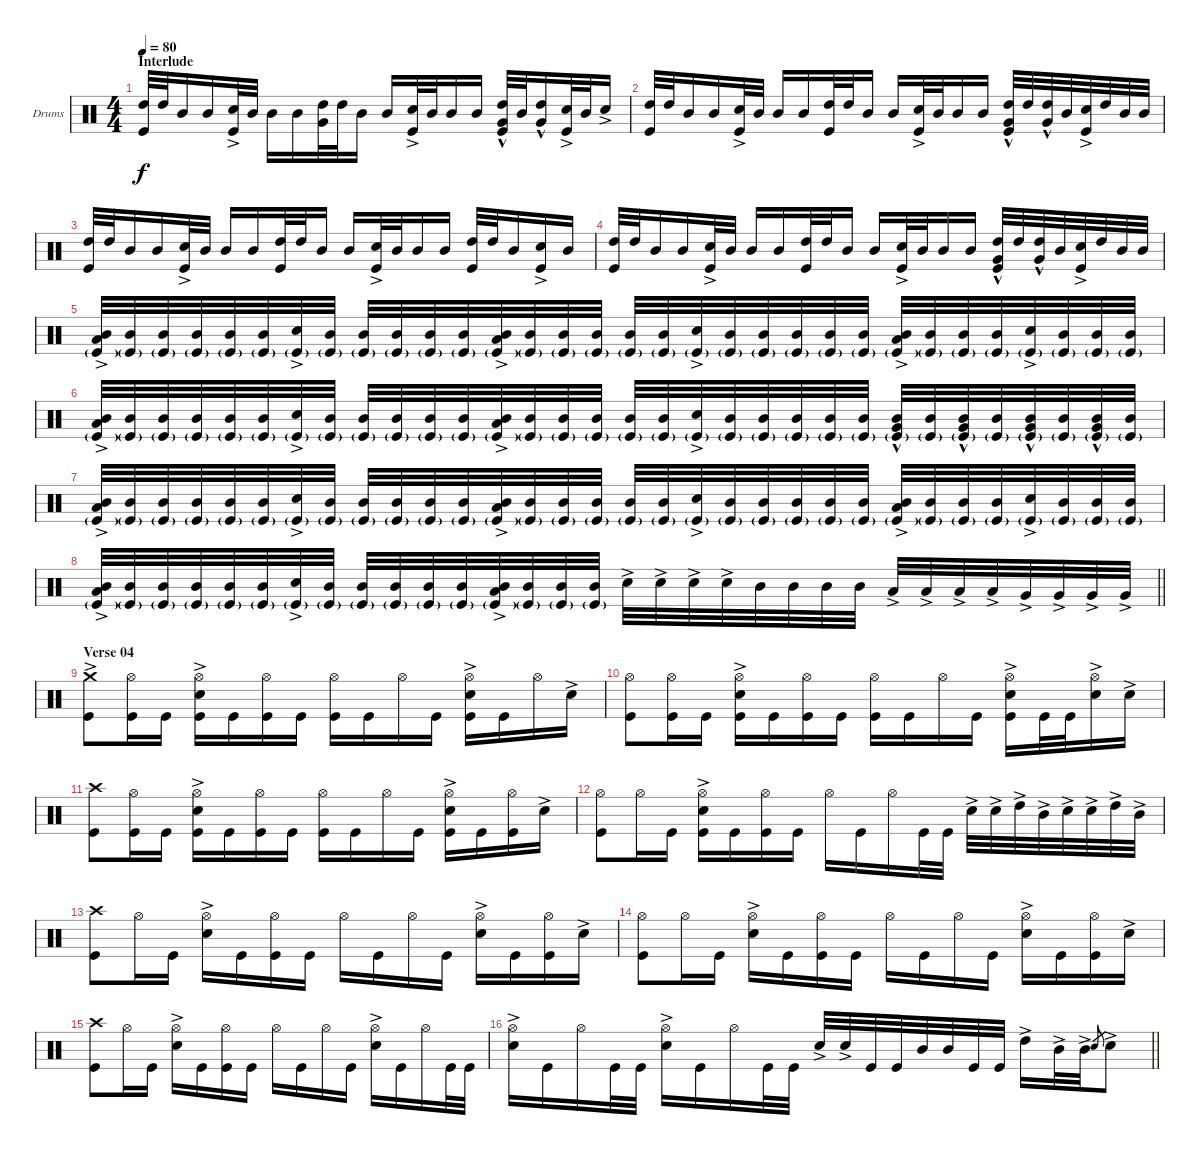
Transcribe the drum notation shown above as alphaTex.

\bracketExtendMode groupsimilarinstruments
\firstSystemTrackNameOrientation horizontal
\otherSystemsTrackNameOrientation horizontal
\track ("Drumkit" "Drums") {instrument percussion}
\staff {score}
\articulation defaults
\ts (4 4)
\section ("" "Interlude")
\tempo 80
\clef neutral
\ks c
("High Tom (hit)" "Kick (hit)").32{dy f} "High Tom (hit)".32 "Mid Tom (hit)".16 "Mid Tom (hit)".16 ("Snare (hit) 2"{ac} "Kick (hit)").32 "Mid Tom (hit)".32 "Mid Tom (hit)".16 "Mid Tom (hit)".16 ("High Tom (hit)" "Very Low Tom (hit)").32 "High Tom (hit)".32 "Mid Tom (hit)".16 "Mid Tom (hit)".16 ("Snare (hit) 2"{ac} "Kick (hit)").32 "Mid Tom (hit)".32 "Mid Tom (hit)".16 "Mid Tom (hit)".16 ("High Tom (hit)" "Very Low Tom (hit)"{hac} "Kick (hit)").32 "Mid Tom (hit)".32 ("High Tom (hit)" "Very Low Tom (hit)"{hac}).16 ("Snare (hit) 2"{ac} "Kick (hit)").32 "Mid Tom (hit)".32 "Snare (hit) 2"{ac}.16 |
("High Tom (hit)" "Kick (hit)").32 "High Tom (hit)".32 "Mid Tom (hit)".16 "Mid Tom (hit)".16 ("Snare (hit) 2"{ac} "Kick (hit)").32 "Mid Tom (hit)".32 "Mid Tom (hit)".16 "Mid Tom (hit)".16 ("High Tom (hit)" "Kick (hit)").32 "High Tom (hit)".32 "Mid Tom (hit)".16 "Mid Tom (hit)".16 ("Snare (hit) 2"{ac} "Kick (hit)").32 "Mid Tom (hit)".32 "Mid Tom (hit)".16 "Mid Tom (hit)".16 ("High Tom (hit)" "Very Low Tom (hit)"{hac} "Kick (hit)").32 "High Tom (hit)".32 ("High Tom (hit)" "Very Low Tom (hit)"{hac}).32 "Mid Tom (hit)".32 ("Snare (hit) 2"{ac} "Kick (hit)").32 "High Tom (hit)".32 "Mid Tom (hit)".32 "Mid Tom (hit)".32 |
("High Tom (hit)" "Kick (hit)").32 "High Tom (hit)".32 "Mid Tom (hit)".16 "Mid Tom (hit)".16 ("Snare (hit) 2"{ac} "Kick (hit)").32 "Mid Tom (hit)".32 "Mid Tom (hit)".16 "Mid Tom (hit)".16 ("High Tom (hit)" "Kick (hit)").32 "High Tom (hit)".32 "Mid Tom (hit)".16 "Mid Tom (hit)".16 ("Snare (hit) 2"{ac} "Kick (hit)").32 "Mid Tom (hit)".32 "Mid Tom (hit)".16 "Mid Tom (hit)".16 ("High Tom (hit)" "Kick (hit)").32 "High Tom (hit)".32 "Mid Tom (hit)".16 ("Snare (hit) 2"{ac} "Kick (hit)").16 "Mid Tom (hit)".16 |
("High Tom (hit)" "Kick (hit)").32 "High Tom (hit)".32 "Mid Tom (hit)".16 "Mid Tom (hit)".16 ("Snare (hit) 2"{ac} "Kick (hit)").32 "Mid Tom (hit)".32 "Mid Tom (hit)".16 "Mid Tom (hit)".16 ("High Tom (hit)" "Kick (hit)").32 "High Tom (hit)".32 "Mid Tom (hit)".16 "Mid Tom (hit)".16 ("Snare (hit) 2"{ac} "Kick (hit)").32 "Mid Tom (hit)".32 "Mid Tom (hit)".16 "Mid Tom (hit)".16 ("High Tom (hit)" "Very Low Tom (hit)"{hac} "Kick (hit)").32 "High Tom (hit)".32 ("High Tom (hit)" "Very Low Tom (hit)"{hac}).32 "Mid Tom (hit)".32 ("Snare (hit) 2"{ac} "Kick (hit)").32 "High Tom (hit)".32 "Mid Tom (hit)".32 "Mid Tom (hit)".32 |
("Kick (hit)"{g} "Mid Tom (hit)" "Low Tom (hit)"{ac}).32 ("Kick (hit)"{g} "Mid Tom (hit)").32 ("Kick (hit)"{g} "Mid Tom (hit)").32 ("Kick (hit)"{g} "Mid Tom (hit)").32 ("Kick (hit)"{g} "Mid Tom (hit)").32 ("Kick (hit)"{g} "Mid Tom (hit)").32 ("Snare (hit) 2"{ac} "Kick (hit)"{g}).32 ("Kick (hit)"{g} "Mid Tom (hit)").32 ("Kick (hit)"{g} "Mid Tom (hit)").32 ("Kick (hit)"{g} "Mid Tom (hit)").32 ("Kick (hit)"{g} "Mid Tom (hit)").32 ("Kick (hit)"{g} "Mid Tom (hit)").32 ("Kick (hit)"{g} "Low Tom (hit)"{ac} "Mid Tom (hit)").32 ("Kick (hit)"{g} "Mid Tom (hit)").32 ("Kick (hit)"{g} "Mid Tom (hit)").32 ("Kick (hit)"{g} "Mid Tom (hit)").32 ("Kick (hit)"{g} "Mid Tom (hit)").32 ("Kick (hit)"{g} "Mid Tom (hit)").32 ("Snare (hit) 2"{ac} "Kick (hit)"{g}).32 ("Kick (hit)"{g} "Mid Tom (hit)").32 ("Kick (hit)"{g} "Mid Tom (hit)").32 ("Kick (hit)"{g} "Mid Tom (hit)").32 ("Kick (hit)"{g} "Mid Tom (hit)").32 ("Kick (hit)"{g} "Mid Tom (hit)").32 ("Kick (hit)"{g} "Low Tom (hit)"{ac} "Mid Tom (hit)").32 ("Kick (hit)"{g} "Mid Tom (hit)").32 ("Kick (hit)"{g} "Mid Tom (hit)").32 ("Kick (hit)"{g} "Mid Tom (hit)").32 ("Snare (hit) 2"{ac} "Kick (hit)"{g}).32 ("Kick (hit)"{g} "Mid Tom (hit)").32 ("Kick (hit)"{g} "Mid Tom (hit)").32 ("Kick (hit)"{g} "Mid Tom (hit)").32 |
("Kick (hit)"{g} "Mid Tom (hit)" "Low Tom (hit)"{ac}).32 ("Kick (hit)"{g} "Mid Tom (hit)").32 ("Kick (hit)"{g} "Mid Tom (hit)").32 ("Kick (hit)"{g} "Mid Tom (hit)").32 ("Kick (hit)"{g} "Mid Tom (hit)").32 ("Kick (hit)"{g} "Mid Tom (hit)").32 ("Snare (hit) 2"{ac} "Kick (hit)"{g}).32 ("Kick (hit)"{g} "Mid Tom (hit)").32 ("Kick (hit)"{g} "Mid Tom (hit)").32 ("Kick (hit)"{g} "Mid Tom (hit)").32 ("Kick (hit)"{g} "Mid Tom (hit)").32 ("Kick (hit)"{g} "Mid Tom (hit)").32 ("Kick (hit)"{g} "Mid Tom (hit)" "Low Tom (hit)"{ac}).32 ("Kick (hit)"{g} "Mid Tom (hit)").32 ("Kick (hit)"{g} "Mid Tom (hit)").32 ("Kick (hit)"{g} "Mid Tom (hit)").32 ("Kick (hit)"{g} "Mid Tom (hit)").32 ("Kick (hit)"{g} "Mid Tom (hit)").32 ("Snare (hit) 2"{ac} "Kick (hit)"{g}).32 ("Kick (hit)"{g} "Mid Tom (hit)").32 ("Kick (hit)"{g} "Mid Tom (hit)").32 ("Kick (hit)"{g} "Mid Tom (hit)").32 ("Kick (hit)"{g} "Mid Tom (hit)").32 ("Kick (hit)"{g} "Mid Tom (hit)").32 ("Kick (hit)"{g} "Mid Tom (hit)" "Very Low Tom (hit)"{hac}).32 ("Kick (hit)"{g} "Mid Tom (hit)").32 ("Kick (hit)"{g} "Mid Tom (hit)" "Very Low Tom (hit)"{hac}).32 ("Kick (hit)"{g} "Mid Tom (hit)").32 ("Kick (hit)"{g} "Mid Tom (hit)" "Very Low Tom (hit)"{hac}).32 ("Kick (hit)"{g} "Mid Tom (hit)").32 ("Kick (hit)"{g} "Mid Tom (hit)" "Very Low Tom (hit)"{hac}).32 ("Kick (hit)"{g} "Mid Tom (hit)").32 |
("Kick (hit)"{g} "Mid Tom (hit)" "Low Tom (hit)"{ac}).32 ("Kick (hit)"{g} "Mid Tom (hit)").32 ("Kick (hit)"{g} "Mid Tom (hit)").32 ("Kick (hit)"{g} "Mid Tom (hit)").32 ("Kick (hit)"{g} "Mid Tom (hit)").32 ("Kick (hit)"{g} "Mid Tom (hit)").32 ("Snare (hit) 2"{ac} "Kick (hit)"{g}).32 ("Kick (hit)"{g} "Mid Tom (hit)").32 ("Kick (hit)"{g} "Mid Tom (hit)").32 ("Kick (hit)"{g} "Mid Tom (hit)").32 ("Kick (hit)"{g} "Mid Tom (hit)").32 ("Kick (hit)"{g} "Mid Tom (hit)").32 ("Kick (hit)"{g} "Low Tom (hit)"{ac} "Mid Tom (hit)").32 ("Kick (hit)"{g} "Mid Tom (hit)").32 ("Kick (hit)"{g} "Mid Tom (hit)").32 ("Kick (hit)"{g} "Mid Tom (hit)").32 ("Kick (hit)"{g} "Mid Tom (hit)").32 ("Kick (hit)"{g} "Mid Tom (hit)").32 ("Snare (hit) 2"{ac} "Kick (hit)"{g}).32 ("Kick (hit)"{g} "Mid Tom (hit)").32 ("Kick (hit)"{g} "Mid Tom (hit)").32 ("Kick (hit)"{g} "Mid Tom (hit)").32 ("Kick (hit)"{g} "Mid Tom (hit)").32 ("Kick (hit)"{g} "Mid Tom (hit)").32 ("Kick (hit)"{g} "Low Tom (hit)"{ac} "Mid Tom (hit)").32 ("Kick (hit)"{g} "Mid Tom (hit)").32 ("Kick (hit)"{g} "Mid Tom (hit)").32 ("Kick (hit)"{g} "Mid Tom (hit)").32 ("Snare (hit) 2"{ac} "Kick (hit)"{g}).32 ("Kick (hit)"{g} "Mid Tom (hit)").32 ("Kick (hit)"{g} "Mid Tom (hit)").32 ("Kick (hit)"{g} "Mid Tom (hit)").32 |
\barLineRight lightlight
("Kick (hit)"{g} "Mid Tom (hit)" "Low Tom (hit)"{ac}).32 ("Kick (hit)"{g} "Mid Tom (hit)").32 ("Kick (hit)"{g} "Mid Tom (hit)").32 ("Kick (hit)"{g} "Mid Tom (hit)").32 ("Kick (hit)"{g} "Mid Tom (hit)").32 ("Kick (hit)"{g} "Mid Tom (hit)").32 ("Snare (hit) 2"{ac} "Kick (hit)"{g}).32 ("Kick (hit)"{g} "Mid Tom (hit)").32 ("Kick (hit)"{g} "Mid Tom (hit)").32 ("Kick (hit)"{g} "Mid Tom (hit)").32 ("Kick (hit)"{g} "Mid Tom (hit)").32 ("Kick (hit)"{g} "Mid Tom (hit)").32 ("Kick (hit)"{g} "Low Tom (hit)"{ac} "Mid Tom (hit)").32 ("Kick (hit)"{g} "Mid Tom (hit)").32 ("Kick (hit)"{g} "Mid Tom (hit)").32 ("Kick (hit)"{g} "Mid Tom (hit)").32 "Snare (hit) 2"{ac}.32 "Snare (hit) 2"{ac}.32 "Snare (hit) 2"{ac}.32 "Snare (hit) 2"{ac}.32 "Mid Tom (hit)".32 "Mid Tom (hit)".32 "Mid Tom (hit)".32 "Mid Tom (hit)".32 "Low Tom (hit)"{ac}.32 "Low Tom (hit)"{ac}.32 "Low Tom (hit)"{ac}.32 "Low Tom (hit)"{ac}.32 "Very Low Tom (hit)"{ac}.32 "Very Low Tom (hit)"{ac}.32 "Very Low Tom (hit)"{ac}.32 "Very Low Tom (hit)"{ac}.32 |
\section ("" "Verse 04")
("Crash medium (hit)"{ac} "Kick (hit)").8 ("Kick (hit)" "Hi-Hat (open)").16 "Kick (hit)".16 ("Snare (hit) 2"{ac} "Kick (hit)" "Hi-Hat (open)").16 "Kick (hit)".16 ("Kick (hit)" "Hi-Hat (open)").16 "Kick (hit)".16 ("Kick (hit)" "Hi-Hat (open)").16 "Kick (hit)".16 "Hi-Hat (open)".16 "Kick (hit)".16 ("Snare (hit) 2"{ac} "Kick (hit)" "Hi-Hat (open)").16 "Kick (hit)".16 "Hi-Hat (open)".16 "Snare (hit) 2"{ac}.16 |
("Kick (hit)" "Hi-Hat (open)").8 ("Kick (hit)" "Hi-Hat (open)").16 "Kick (hit)".16 ("Snare (hit) 2"{ac} "Kick (hit)" "Hi-Hat (open)").16 "Kick (hit)".16 ("Kick (hit)" "Hi-Hat (open)").16 "Kick (hit)".16 ("Kick (hit)" "Hi-Hat (open)").16 "Kick (hit)".16 "Hi-Hat (open)".16 "Kick (hit)".16 ("Snare (hit) 2"{ac} "Kick (hit)" "Hi-Hat (open)").16 "Kick (hit)".32 "Kick (hit)".32 ("Snare (hit) 2"{ac} "Hi-Hat (open)").16 "Snare (hit) 2"{ac}.16 |
("Crash high (hit)" "Kick (hit)").8 ("Kick (hit)" "Hi-Hat (open)").16 "Kick (hit)".16 ("Snare (hit) 2"{ac} "Kick (hit)" "Hi-Hat (open)").16 "Kick (hit)".16 ("Kick (hit)" "Hi-Hat (open)").16 "Kick (hit)".16 ("Kick (hit)" "Hi-Hat (open)").16 "Kick (hit)".16 "Hi-Hat (open)".16 "Kick (hit)".16 ("Snare (hit) 2"{ac} "Kick (hit)" "Hi-Hat (open)").16 "Kick (hit)".16 ("Kick (hit)" "Hi-Hat (open)").16 "Snare (hit) 2"{ac}.16 |
("Kick (hit)" "Hi-Hat (open)").8 "Hi-Hat (open)".16 "Kick (hit)".16 ("Snare (hit) 2"{ac} "Kick (hit)" "Hi-Hat (open)").16 "Kick (hit)".16 ("Kick (hit)" "Hi-Hat (open)").16 "Kick (hit)".16 "Hi-Hat (open)".16 "Kick (hit)".16 "Hi-Hat (open)".16 "Kick (hit)".32 "Kick (hit)".32 "Snare (hit) 2"{ac}.32 "Snare (hit) 2"{ac}.32 "High Tom (hit)"{ac}.32 "Mid Tom (hit)"{ac}.32 "Snare (hit) 2"{ac}.32 "Snare (hit) 2"{ac}.32 "High Tom (hit)"{ac}.32 "Mid Tom (hit)"{ac}.32 |
("Crash high (hit)" "Kick (hit)").8 "Hi-Hat (open)".16 "Kick (hit)".16 ("Snare (hit) 2"{ac} "Hi-Hat (open)").16 "Kick (hit)".16 ("Kick (hit)" "Hi-Hat (open)").16 "Kick (hit)".16 "Hi-Hat (open)".16 "Kick (hit)".16 "Hi-Hat (open)".16 "Kick (hit)".16 ("Snare (hit) 2"{ac} "Hi-Hat (open)").16 "Kick (hit)".16 ("Kick (hit)" "Hi-Hat (open)").16 "Snare (hit) 2"{ac}.16 |
("Kick (hit)" "Hi-Hat (open)").8 "Hi-Hat (open)".16 "Kick (hit)".16 ("Snare (hit) 2"{ac} "Hi-Hat (open)").16 "Kick (hit)".16 ("Kick (hit)" "Hi-Hat (open)").16 "Kick (hit)".16 "Hi-Hat (open)".16 "Kick (hit)".16 "Hi-Hat (open)".16 "Kick (hit)".16 ("Snare (hit) 2"{ac} "Hi-Hat (open)").16 "Kick (hit)".16 ("Kick (hit)" "Hi-Hat (open)").16 "Snare (hit) 2"{ac}.16 |
("Crash high (hit)" "Kick (hit)").8 "Hi-Hat (open)".16 "Kick (hit)".16 ("Snare (hit) 2"{ac} "Hi-Hat (open)").16 "Kick (hit)".16 ("Kick (hit)" "Hi-Hat (open)").16 "Kick (hit)".16 "Hi-Hat (open)".16 "Kick (hit)".16 "Hi-Hat (open)".16 "Kick (hit)".16 ("Snare (hit) 2"{ac} "Hi-Hat (open)").16 "Kick (hit)".16 "Hi-Hat (open)".16 "Kick (hit)".32 "Kick (hit)".32 |
\barLineRight lightlight
("Snare (hit) 2"{ac} "Hi-Hat (open)").16 "Kick (hit)".16 "Hi-Hat (open)".16 "Kick (hit)".32 "Kick (hit)".32 ("Snare (hit) 2"{ac} "Hi-Hat (open)").16 "Kick (hit)".16 "Hi-Hat (open)".16 "Kick (hit)".32 "Kick (hit)".32 "Snare (hit) 2"{ac}.32 "Snare (hit) 2"{ac}.32 "Kick (hit)".32 "Kick (hit)".32 "Mid Tom (hit)".32 "Mid Tom (hit)".32 "Kick (hit)".32 "Kick (hit)".32 "High Tom (hit)"{ac}.16 "Mid Tom (hit)"{ac}.32 "Mid Tom (hit)"{ac}.32 "Snare (hit) 2".8{gr} "Snare (hit) 2"{ac}.8
